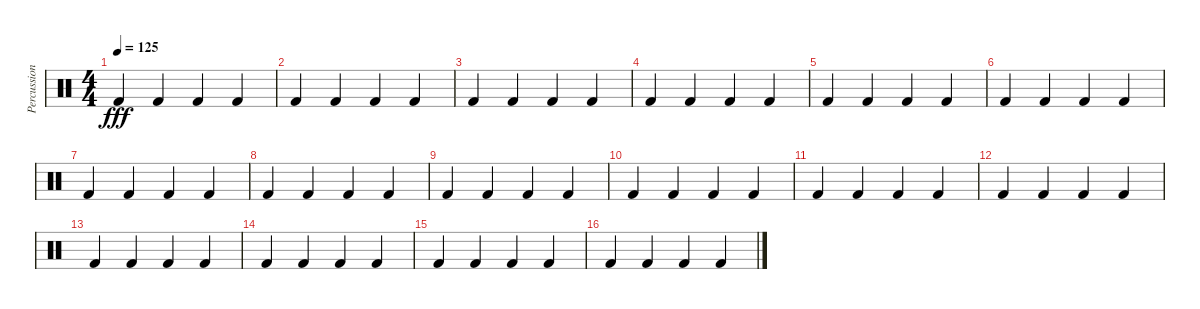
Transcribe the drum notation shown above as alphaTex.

\track ("Percussion" "Percussion") {instrument percussion}
\staff {score}
\articulation defaults
\ts (4 4)
\tempo 125
\clef neutral
\ks c "Kick (hit) 2".4{dy fff} "Kick (hit) 2".4 "Kick (hit) 2".4 "Kick (hit) 2".4
|
"Kick (hit) 2".4 "Kick (hit) 2".4 "Kick (hit) 2".4 "Kick (hit) 2".4 |
"Kick (hit) 2".4 "Kick (hit) 2".4 "Kick (hit) 2".4 "Kick (hit) 2".4 |
"Kick (hit) 2".4 "Kick (hit) 2".4 "Kick (hit) 2".4 "Kick (hit) 2".4 |
"Kick (hit) 2".4 "Kick (hit) 2".4 "Kick (hit) 2".4 "Kick (hit) 2".4 |
"Kick (hit) 2".4 "Kick (hit) 2".4 "Kick (hit) 2".4 "Kick (hit) 2".4 |
"Kick (hit) 2".4 "Kick (hit) 2".4 "Kick (hit) 2".4 "Kick (hit) 2".4 |
"Kick (hit) 2".4 "Kick (hit) 2".4 "Kick (hit) 2".4 "Kick (hit) 2".4 |
"Kick (hit) 2".4 "Kick (hit) 2".4 "Kick (hit) 2".4 "Kick (hit) 2".4 |
"Kick (hit) 2".4 "Kick (hit) 2".4 "Kick (hit) 2".4 "Kick (hit) 2".4 |
"Kick (hit) 2".4 "Kick (hit) 2".4 "Kick (hit) 2".4 "Kick (hit) 2".4 |
"Kick (hit) 2".4 "Kick (hit) 2".4 "Kick (hit) 2".4 "Kick (hit) 2".4 |
"Kick (hit) 2".4 "Kick (hit) 2".4 "Kick (hit) 2".4 "Kick (hit) 2".4 |
"Kick (hit) 2".4 "Kick (hit) 2".4 "Kick (hit) 2".4 "Kick (hit) 2".4 |
"Kick (hit) 2".4 "Kick (hit) 2".4 "Kick (hit) 2".4 "Kick (hit) 2".4 |
"Kick (hit) 2".4 "Kick (hit) 2".4 "Kick (hit) 2".4 "Kick (hit) 2".4
